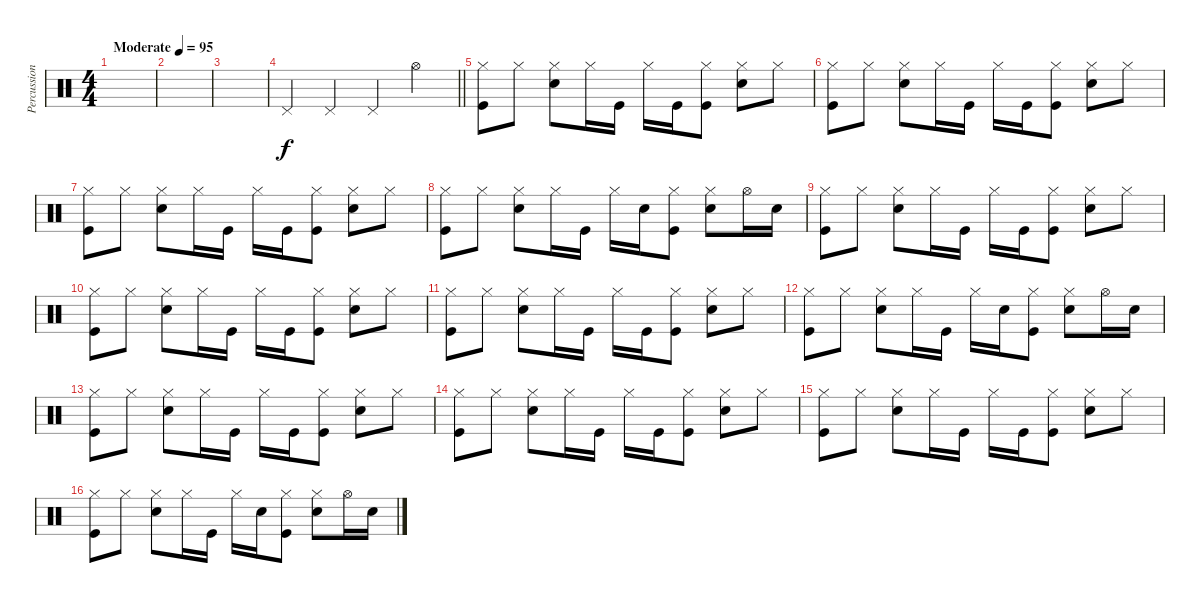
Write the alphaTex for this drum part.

\track ("Percussion" "Percussion") {instrument percussion}
\staff {score}
\articulation defaults
\ts (4 4)
\tempo (95 "Moderate")
\clef neutral
\ks c
|
|
|
\barLineRight lightlight "Pedal Hi-Hat (hit)".4 "Pedal Hi-Hat (hit)".4 "Pedal Hi-Hat (hit)".4 "Hi-Hat (open)".4
|
("Hi-Hat (closed)" "Kick (hit)").8 "Hi-Hat (closed)".8 ("Hi-Hat (closed)" "Snare (hit) 2").8 "Hi-Hat (closed)".16 "Kick (hit)".16 "Hi-Hat (closed)".16 "Kick (hit)".16 ("Hi-Hat (closed)" "Kick (hit)").8 ("Hi-Hat (closed)" "Snare (hit) 2").8 "Hi-Hat (closed)".8 |
("Hi-Hat (closed)" "Kick (hit)").8 "Hi-Hat (closed)".8 ("Hi-Hat (closed)" "Snare (hit) 2").8 "Hi-Hat (closed)".16 "Kick (hit)".16 "Hi-Hat (closed)".16 "Kick (hit)".16 ("Hi-Hat (closed)" "Kick (hit)").8 ("Hi-Hat (closed)" "Snare (hit) 2").8 "Hi-Hat (closed)".8 |
("Hi-Hat (closed)" "Kick (hit)").8 "Hi-Hat (closed)".8 ("Hi-Hat (closed)" "Snare (hit) 2").8 "Hi-Hat (closed)".16 "Kick (hit)".16 "Hi-Hat (closed)".16 "Kick (hit)".16 ("Hi-Hat (closed)" "Kick (hit)").8 ("Hi-Hat (closed)" "Snare (hit) 2").8 "Hi-Hat (closed)".8 |
("Hi-Hat (closed)" "Kick (hit)").8 "Hi-Hat (closed)".8 ("Hi-Hat (closed)" "Snare (hit) 2").8 "Hi-Hat (closed)".16 "Kick (hit)".16 "Hi-Hat (closed)".16 "Snare (hit) 2".16 ("Hi-Hat (closed)" "Kick (hit)").8 ("Hi-Hat (closed)" "Snare (hit) 2").8 "Hi-Hat (open)".16 "Snare (hit) 2".16 |
("Hi-Hat (closed)" "Kick (hit)").8 "Hi-Hat (closed)".8 ("Hi-Hat (closed)" "Snare (hit) 2").8 "Hi-Hat (closed)".16 "Kick (hit)".16 "Hi-Hat (closed)".16 "Kick (hit)".16 ("Hi-Hat (closed)" "Kick (hit)").8 ("Hi-Hat (closed)" "Snare (hit) 2").8 "Hi-Hat (closed)".8 |
("Hi-Hat (closed)" "Kick (hit)").8 "Hi-Hat (closed)".8 ("Hi-Hat (closed)" "Snare (hit) 2").8 "Hi-Hat (closed)".16 "Kick (hit)".16 "Hi-Hat (closed)".16 "Kick (hit)".16 ("Hi-Hat (closed)" "Kick (hit)").8 ("Hi-Hat (closed)" "Snare (hit) 2").8 "Hi-Hat (closed)".8 |
("Hi-Hat (closed)" "Kick (hit)").8 "Hi-Hat (closed)".8 ("Hi-Hat (closed)" "Snare (hit) 2").8 "Hi-Hat (closed)".16 "Kick (hit)".16 "Hi-Hat (closed)".16 "Kick (hit)".16 ("Hi-Hat (closed)" "Kick (hit)").8 ("Hi-Hat (closed)" "Snare (hit) 2").8 "Hi-Hat (closed)".8 |
("Hi-Hat (closed)" "Kick (hit)").8 "Hi-Hat (closed)".8 ("Hi-Hat (closed)" "Snare (hit) 2").8 "Hi-Hat (closed)".16 "Kick (hit)".16 "Hi-Hat (closed)".16 "Snare (hit) 2".16 ("Hi-Hat (closed)" "Kick (hit)").8 ("Hi-Hat (closed)" "Snare (hit) 2").8 "Hi-Hat (open)".16 "Snare (hit) 2".16 |
("Hi-Hat (closed)" "Kick (hit)").8 "Hi-Hat (closed)".8 ("Hi-Hat (closed)" "Snare (hit) 2").8 "Hi-Hat (closed)".16 "Kick (hit)".16 "Hi-Hat (closed)".16 "Kick (hit)".16 ("Hi-Hat (closed)" "Kick (hit)").8 ("Hi-Hat (closed)" "Snare (hit) 2").8 "Hi-Hat (closed)".8 |
("Hi-Hat (closed)" "Kick (hit)").8 "Hi-Hat (closed)".8 ("Hi-Hat (closed)" "Snare (hit) 2").8 "Hi-Hat (closed)".16 "Kick (hit)".16 "Hi-Hat (closed)".16 "Kick (hit)".16 ("Hi-Hat (closed)" "Kick (hit)").8 ("Hi-Hat (closed)" "Snare (hit) 2").8 "Hi-Hat (closed)".8 |
("Hi-Hat (closed)" "Kick (hit)").8 "Hi-Hat (closed)".8 ("Hi-Hat (closed)" "Snare (hit) 2").8 "Hi-Hat (closed)".16 "Kick (hit)".16 "Hi-Hat (closed)".16 "Kick (hit)".16 ("Hi-Hat (closed)" "Kick (hit)").8 ("Hi-Hat (closed)" "Snare (hit) 2").8 "Hi-Hat (closed)".8 |
("Hi-Hat (closed)" "Kick (hit)").8 "Hi-Hat (closed)".8 ("Hi-Hat (closed)" "Snare (hit) 2").8 "Hi-Hat (closed)".16 "Kick (hit)".16 "Hi-Hat (closed)".16 "Snare (hit) 2".16 ("Hi-Hat (closed)" "Kick (hit)").8 ("Hi-Hat (closed)" "Snare (hit) 2").8 "Hi-Hat (open)".16 "Snare (hit) 2".16
